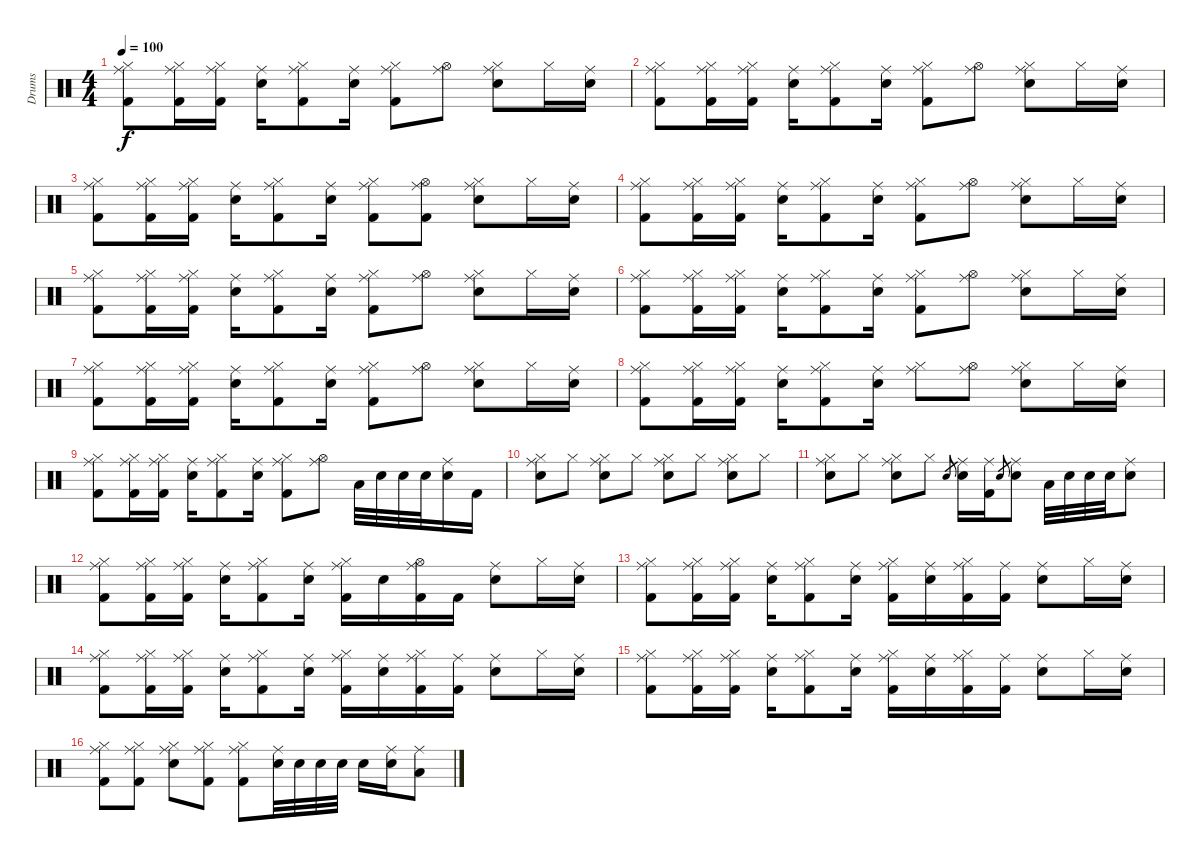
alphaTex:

\track ("Drums" "Drums") {instrument percussion}
\staff {score}
\articulation defaults
\ts (4 4)
\tempo 100
\clef neutral
\ks c
("Ride (middle)" "Hi-Hat (closed)" "Kick (hit) 2").8{dy f} ("Ride (middle)" "Hi-Hat (closed)" "Kick (hit) 2").16 ("Ride (middle)" "Hi-Hat (closed)" "Kick (hit) 2").16 ("Ride (middle)" "Electric Snare (hit)").16 ("Ride (middle)" "Hi-Hat (closed)" "Kick (hit) 2").8 ("Ride (middle)" "Electric Snare (hit)").16 ("Ride (middle)" "Hi-Hat (closed)" "Kick (hit) 2").8 ("Ride (middle)" "Hi-Hat (open)").8 ("Ride (middle)" "Hi-Hat (closed)" "Electric Snare (hit)").8 "Hi-Hat (closed)".16 ("Ride (middle)" "Electric Snare (hit)").16 |
("Ride (middle)" "Hi-Hat (closed)" "Kick (hit) 2").8 ("Ride (middle)" "Hi-Hat (closed)" "Kick (hit) 2").16 ("Ride (middle)" "Hi-Hat (closed)" "Kick (hit) 2").16 ("Ride (middle)" "Electric Snare (hit)").16 ("Ride (middle)" "Hi-Hat (closed)" "Kick (hit) 2").8 ("Ride (middle)" "Electric Snare (hit)").16 ("Ride (middle)" "Hi-Hat (closed)" "Kick (hit) 2").8 ("Ride (middle)" "Hi-Hat (open)").8 ("Ride (middle)" "Hi-Hat (closed)" "Electric Snare (hit)").8 "Hi-Hat (closed)".16 ("Ride (middle)" "Electric Snare (hit)").16 |
("Ride (middle)" "Hi-Hat (closed)" "Kick (hit) 2").8 ("Ride (middle)" "Hi-Hat (closed)" "Kick (hit) 2").16 ("Ride (middle)" "Hi-Hat (closed)" "Kick (hit) 2").16 ("Ride (middle)" "Electric Snare (hit)").16 ("Ride (middle)" "Hi-Hat (closed)" "Kick (hit) 2").8 ("Ride (middle)" "Electric Snare (hit)").16 ("Ride (middle)" "Hi-Hat (closed)" "Kick (hit) 2").8 ("Ride (middle)" "Hi-Hat (open)" "Kick (hit) 2").8 ("Ride (middle)" "Hi-Hat (closed)" "Electric Snare (hit)").8 "Hi-Hat (closed)".16 ("Ride (middle)" "Electric Snare (hit)").16 |
("Ride (middle)" "Hi-Hat (closed)" "Kick (hit) 2").8 ("Ride (middle)" "Hi-Hat (closed)" "Kick (hit) 2").16 ("Ride (middle)" "Hi-Hat (closed)" "Kick (hit) 2").16 ("Ride (middle)" "Electric Snare (hit)").16 ("Ride (middle)" "Hi-Hat (closed)" "Kick (hit) 2").8 ("Ride (middle)" "Electric Snare (hit)").16 ("Ride (middle)" "Hi-Hat (closed)" "Kick (hit) 2").8 ("Ride (middle)" "Hi-Hat (open)").8 ("Ride (middle)" "Hi-Hat (closed)" "Electric Snare (hit)").8 "Hi-Hat (closed)".16 ("Ride (middle)" "Electric Snare (hit)").16 |
("Ride (middle)" "Hi-Hat (closed)" "Kick (hit) 2").8 ("Ride (middle)" "Hi-Hat (closed)" "Kick (hit) 2").16 ("Ride (middle)" "Hi-Hat (closed)" "Kick (hit) 2").16 ("Ride (middle)" "Electric Snare (hit)").16 ("Ride (middle)" "Hi-Hat (closed)" "Kick (hit) 2").8 ("Ride (middle)" "Electric Snare (hit)").16 ("Ride (middle)" "Hi-Hat (closed)" "Kick (hit) 2").8 ("Ride (middle)" "Hi-Hat (open)").8 ("Ride (middle)" "Hi-Hat (closed)" "Electric Snare (hit)").8 "Hi-Hat (closed)".16 ("Ride (middle)" "Electric Snare (hit)").16 |
("Ride (middle)" "Hi-Hat (closed)" "Kick (hit) 2").8 ("Ride (middle)" "Hi-Hat (closed)" "Kick (hit) 2").16 ("Ride (middle)" "Hi-Hat (closed)" "Kick (hit) 2").16 ("Ride (middle)" "Electric Snare (hit)").16 ("Ride (middle)" "Hi-Hat (closed)" "Kick (hit) 2").8 ("Ride (middle)" "Electric Snare (hit)").16 ("Ride (middle)" "Hi-Hat (closed)" "Kick (hit) 2").8 ("Ride (middle)" "Hi-Hat (open)").8 ("Ride (middle)" "Hi-Hat (closed)" "Electric Snare (hit)").8 "Hi-Hat (closed)".16 ("Ride (middle)" "Electric Snare (hit)").16 |
("Ride (middle)" "Hi-Hat (closed)" "Kick (hit) 2").8 ("Ride (middle)" "Hi-Hat (closed)" "Kick (hit) 2").16 ("Ride (middle)" "Hi-Hat (closed)" "Kick (hit) 2").16 ("Ride (middle)" "Electric Snare (hit)").16 ("Ride (middle)" "Hi-Hat (closed)" "Kick (hit) 2").8 ("Ride (middle)" "Electric Snare (hit)").16 ("Ride (middle)" "Hi-Hat (closed)" "Kick (hit) 2").8 ("Ride (middle)" "Hi-Hat (open)").8 ("Ride (middle)" "Hi-Hat (closed)" "Electric Snare (hit)").8 "Hi-Hat (closed)".16 ("Ride (middle)" "Electric Snare (hit)").16 |
("Ride (middle)" "Hi-Hat (closed)" "Kick (hit) 2").8 ("Ride (middle)" "Hi-Hat (closed)" "Kick (hit) 2").16 ("Ride (middle)" "Hi-Hat (closed)" "Kick (hit) 2").16 ("Ride (middle)" "Electric Snare (hit)").16 ("Ride (middle)" "Hi-Hat (closed)" "Kick (hit) 2").8 ("Ride (middle)" "Electric Snare (hit)").16 ("Ride (middle)" "Hi-Hat (closed)").8 ("Ride (middle)" "Hi-Hat (open)").8 ("Ride (middle)" "Hi-Hat (closed)" "Electric Snare (hit)").8 "Hi-Hat (closed)".16 ("Ride (middle)" "Electric Snare (hit)").16 |
("Ride (middle)" "Hi-Hat (closed)" "Kick (hit) 2").8 ("Ride (middle)" "Hi-Hat (closed)" "Kick (hit) 2").16 ("Ride (middle)" "Hi-Hat (closed)" "Kick (hit) 2").16 ("Ride (middle)" "Electric Snare (hit)").16 ("Ride (middle)" "Hi-Hat (closed)" "Kick (hit) 2").8 ("Ride (middle)" "Electric Snare (hit)").16 ("Ride (middle)" "Hi-Hat (closed)" "Kick (hit) 2").8 ("Ride (middle)" "Hi-Hat (open)").8 "Low Tom (hit)".32 "Electric Snare (hit)".32 "Electric Snare (hit)".32 "Electric Snare (hit)".32 ("Ride (middle)" "Electric Snare (hit)").16 "Kick (hit) 2".16 |
("Ride (middle)" "Hi-Hat (closed)" "Electric Snare (hit)").8 "Hi-Hat (closed)".8 ("Ride (middle)" "Hi-Hat (closed)" "Electric Snare (hit)").8 "Hi-Hat (closed)".8 ("Ride (middle)" "Hi-Hat (closed)" "Electric Snare (hit)").8 "Hi-Hat (closed)".8 ("Ride (middle)" "Hi-Hat (closed)" "Electric Snare (hit)").8 "Hi-Hat (closed)".8 |
("Ride (middle)" "Hi-Hat (closed)" "Electric Snare (hit)").8 "Hi-Hat (closed)".8 ("Ride (middle)" "Hi-Hat (closed)" "Electric Snare (hit)").8 "Hi-Hat (closed)".8 "Electric Snare (hit)".8{gr} ("Ride (middle)" "Electric Snare (hit)").16 ("Ride (middle)" "Kick (hit) 2").16 "Electric Snare (hit)".8{gr} ("Ride (middle)" "Electric Snare (hit)").8 "Low Tom (hit)".32 "Electric Snare (hit)".32 "Electric Snare (hit)".32 "Electric Snare (hit)".32 ("Ride (middle)" "Electric Snare (hit)").8 |
("Ride (middle)" "Hi-Hat (closed)" "Kick (hit) 2").8 ("Ride (middle)" "Hi-Hat (closed)" "Kick (hit) 2").16 ("Ride (middle)" "Hi-Hat (closed)" "Kick (hit) 2").16 ("Ride (middle)" "Electric Snare (hit)").16 ("Ride (middle)" "Hi-Hat (closed)" "Kick (hit) 2").8 ("Ride (middle)" "Electric Snare (hit)").16 ("Ride (middle)" "Hi-Hat (closed)" "Kick (hit) 2").16 "Electric Snare (hit)".16 ("Ride (middle)" "Hi-Hat (open)" "Kick (hit) 2").16 "Kick (hit) 2".16 ("Ride (middle)" "Electric Snare (hit)").8 "Hi-Hat (closed)".16 ("Ride (middle)" "Electric Snare (hit)").16 |
("Ride (middle)" "Hi-Hat (closed)" "Kick (hit) 2").8 ("Ride (middle)" "Hi-Hat (closed)" "Kick (hit) 2").16 ("Ride (middle)" "Hi-Hat (closed)" "Kick (hit) 2").16 ("Ride (middle)" "Electric Snare (hit)").16 ("Ride (middle)" "Hi-Hat (closed)" "Kick (hit) 2").8 ("Ride (middle)" "Electric Snare (hit)").16 ("Ride (middle)" "Hi-Hat (closed)" "Kick (hit) 2").16 ("Ride (middle)" "Electric Snare (hit)").16 ("Ride (middle)" "Hi-Hat (closed)" "Kick (hit) 2").16 ("Ride (middle)" "Kick (hit) 2").16 ("Ride (middle)" "Electric Snare (hit)").8 "Hi-Hat (closed)".16 ("Ride (middle)" "Electric Snare (hit)").16 |
("Ride (middle)" "Hi-Hat (closed)" "Kick (hit) 2").8 ("Ride (middle)" "Hi-Hat (closed)" "Kick (hit) 2").16 ("Ride (middle)" "Hi-Hat (closed)" "Kick (hit) 2").16 ("Ride (middle)" "Electric Snare (hit)").16 ("Ride (middle)" "Hi-Hat (closed)" "Kick (hit) 2").8 ("Ride (middle)" "Electric Snare (hit)").16 ("Ride (middle)" "Hi-Hat (closed)" "Kick (hit) 2").16 ("Ride (middle)" "Electric Snare (hit)").16 ("Ride (middle)" "Hi-Hat (closed)" "Kick (hit) 2").16 ("Ride (middle)" "Kick (hit) 2").16 ("Ride (middle)" "Electric Snare (hit)").8 "Hi-Hat (closed)".16 ("Ride (middle)" "Electric Snare (hit)").16 |
("Ride (middle)" "Hi-Hat (closed)" "Kick (hit) 2").8 ("Ride (middle)" "Hi-Hat (closed)" "Kick (hit) 2").16 ("Ride (middle)" "Hi-Hat (closed)" "Kick (hit) 2").16 ("Ride (middle)" "Electric Snare (hit)").16 ("Ride (middle)" "Hi-Hat (closed)" "Kick (hit) 2").8 ("Ride (middle)" "Electric Snare (hit)").16 ("Ride (middle)" "Hi-Hat (closed)" "Kick (hit) 2").16 ("Ride (middle)" "Electric Snare (hit)").16 ("Ride (middle)" "Hi-Hat (closed)" "Kick (hit) 2").16 ("Ride (middle)" "Kick (hit) 2").16 ("Ride (middle)" "Electric Snare (hit)").8 "Hi-Hat (closed)".16 ("Ride (middle)" "Electric Snare (hit)").16 |
("Ride (middle)" "Hi-Hat (closed)" "Kick (hit) 2").8 ("Ride (middle)" "Hi-Hat (closed)" "Kick (hit) 2").8 ("Ride (middle)" "Hi-Hat (closed)" "Electric Snare (hit)").8 ("Ride (middle)" "Hi-Hat (closed)" "Kick (hit) 2").8 ("Ride (middle)" "Hi-Hat (closed)" "Kick (hit) 2").8 ("Ride (middle)" "Electric Snare (hit)").32 "Electric Snare (hit)".32 "Electric Snare (hit)".32 "Electric Snare (hit)".32 "Electric Snare (hit)".16 ("Ride (middle)" "Electric Snare (hit)").16 ("Ride (middle)" "Low Tom (hit)").8
